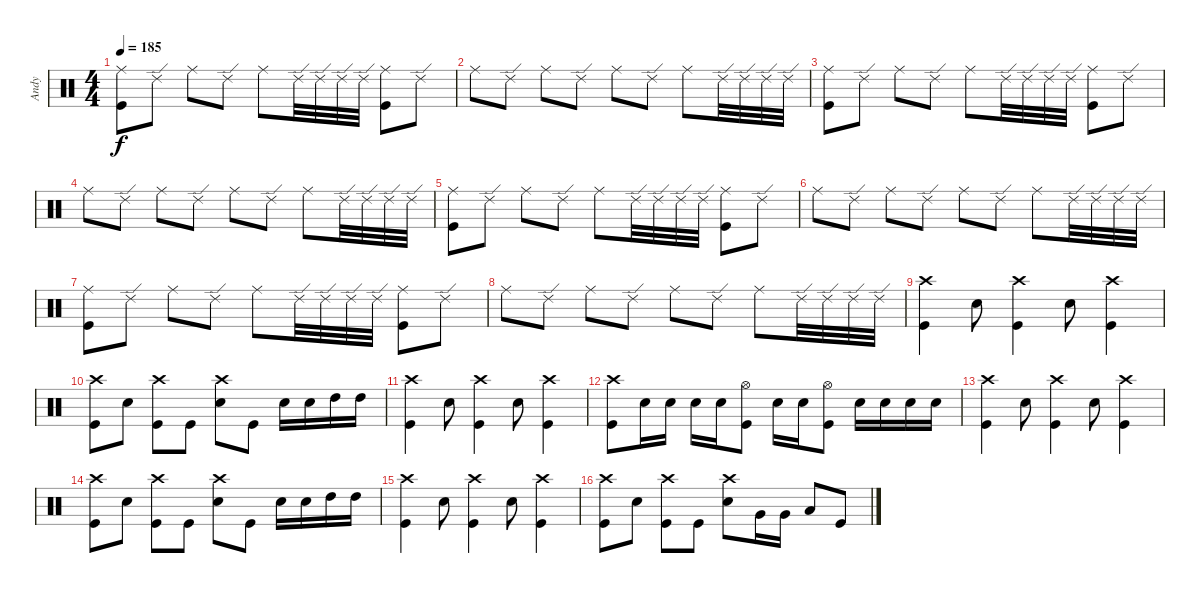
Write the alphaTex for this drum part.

\track ("Andy" "Andy") {instrument percussion}
\staff {score}
\articulation defaults
\ts (4 4)
\tempo 185
\clef neutral
\ks c
("Ride (middle)" "Kick (hit)").8{dy f} "Ride (edge) 2".8 "Ride (middle)".8 "Ride (edge) 2".8 "Ride (middle)".8 "Ride (edge) 2".32 "Ride (edge) 2".32 "Ride (edge) 2".32 "Ride (edge) 2".32 ("Ride (middle)" "Kick (hit)").8 "Ride (edge) 2".8 |
"Ride (middle)".8 "Ride (edge) 2".8 "Ride (middle)".8 "Ride (edge) 2".8 "Ride (middle)".8 "Ride (edge) 2".8 "Ride (middle)".8 "Ride (edge) 2".32 "Ride (edge) 2".32 "Ride (edge) 2".32 "Ride (edge) 2".32 |
("Ride (middle)" "Kick (hit)").8 "Ride (edge) 2".8 "Ride (middle)".8 "Ride (edge) 2".8 "Ride (middle)".8 "Ride (edge) 2".32 "Ride (edge) 2".32 "Ride (edge) 2".32 "Ride (edge) 2".32 ("Ride (middle)" "Kick (hit)").8 "Ride (edge) 2".8 |
"Ride (middle)".8 "Ride (edge) 2".8 "Ride (middle)".8 "Ride (edge) 2".8 "Ride (middle)".8 "Ride (edge) 2".8 "Ride (middle)".8 "Ride (edge) 2".32 "Ride (edge) 2".32 "Ride (edge) 2".32 "Ride (edge) 2".32 |
("Ride (middle)" "Kick (hit)").8 "Ride (edge) 2".8 "Ride (middle)".8 "Ride (edge) 2".8 "Ride (middle)".8 "Ride (edge) 2".32 "Ride (edge) 2".32 "Ride (edge) 2".32 "Ride (edge) 2".32 ("Ride (middle)" "Kick (hit)").8 "Ride (edge) 2".8 |
"Ride (middle)".8 "Ride (edge) 2".8 "Ride (middle)".8 "Ride (edge) 2".8 "Ride (middle)".8 "Ride (edge) 2".8 "Ride (middle)".8 "Ride (edge) 2".32 "Ride (edge) 2".32 "Ride (edge) 2".32 "Ride (edge) 2".32 |
("Ride (middle)" "Kick (hit)").8 "Ride (edge) 2".8 "Ride (middle)".8 "Ride (edge) 2".8 "Ride (middle)".8 "Ride (edge) 2".32 "Ride (edge) 2".32 "Ride (edge) 2".32 "Ride (edge) 2".32 ("Ride (middle)" "Kick (hit)").8 "Ride (edge) 2".8 |
"Ride (middle)".8 "Ride (edge) 2".8 "Ride (middle)".8 "Ride (edge) 2".8 "Ride (middle)".8 "Ride (edge) 2".8 "Ride (middle)".8 "Ride (edge) 2".32 "Ride (edge) 2".32 "Ride (edge) 2".32 "Ride (edge) 2".32 |
("Kick (hit)" "Crash high (hit)").4 "Snare (hit) 2".8 ("Kick (hit)" "Crash high (hit)").4 "Snare (hit) 2".8 ("Kick (hit)" "Crash high (hit)").4 |
("Kick (hit)" "Crash high (hit)").8 "Snare (hit) 2".8 ("Kick (hit)" "Crash high (hit)").8 "Kick (hit)".8 ("Snare (hit) 2" "Crash high (hit)").8 "Kick (hit)".8 "Snare (hit) 2".16 "Snare (hit) 2".16 "High Tom (hit)".16 "High Tom (hit)".16 |
("Kick (hit)" "Crash high (hit)").4 "Snare (hit) 2".8 ("Kick (hit)" "Crash high (hit)").4 "Snare (hit) 2".8 ("Kick (hit)" "Crash high (hit)").4 |
("Kick (hit)" "Crash high (hit)").8 "Snare (hit) 2".16 "Snare (hit) 2".16 "Snare (hit) 2".16 "Snare (hit) 2".16 ("Kick (hit)" "Hi-Hat (open)").8 "Snare (hit) 2".16 "Snare (hit) 2".16 ("Kick (hit)" "Hi-Hat (open)").8 "Snare (hit) 2".16 "Snare (hit) 2".16 "Snare (hit) 2".16 "Snare (hit) 2".16 |
("Kick (hit)" "Crash high (hit)").4 "Snare (hit) 2".8 ("Kick (hit)" "Crash high (hit)").4 "Snare (hit) 2".8 ("Kick (hit)" "Crash high (hit)").4 |
("Kick (hit)" "Crash high (hit)").8 "Snare (hit) 2".8 ("Kick (hit)" "Crash high (hit)").8 "Kick (hit)".8 ("Snare (hit) 2" "Crash high (hit)").8 "Kick (hit)".8 "Snare (hit) 2".16 "Snare (hit) 2".16 "High Tom (hit)".16 "High Tom (hit)".16 |
("Kick (hit)" "Crash high (hit)").4 "Snare (hit) 2".8 ("Kick (hit)" "Crash high (hit)").4 "Snare (hit) 2".8 ("Kick (hit)" "Crash high (hit)").4 |
("Kick (hit)" "Crash high (hit)").8 "Snare (hit) 2".8 ("Kick (hit)" "Crash high (hit)").8 "Kick (hit)".8 ("Snare (hit) 2" "Crash high (hit)").8 "Very Low Tom (hit)".16 "Very Low Tom (hit)".16 "Low Floor Tom (hit)".8 "Kick (hit)".8
